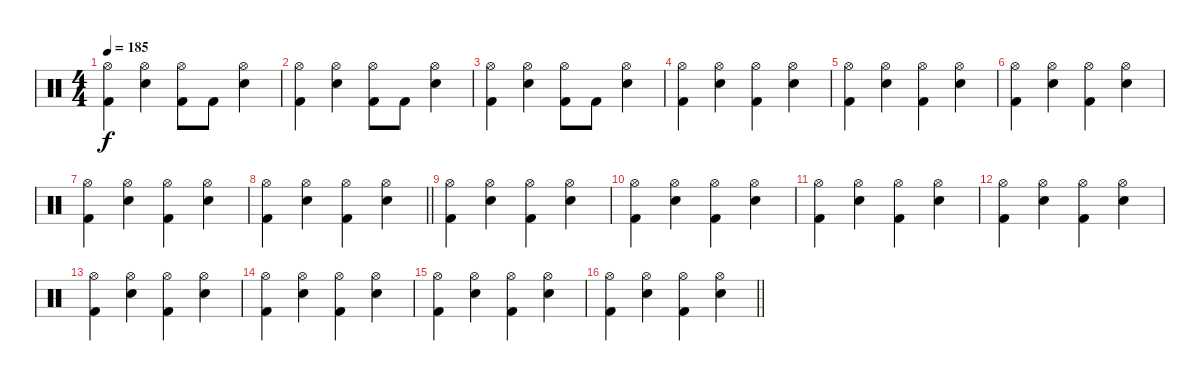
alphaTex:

\track "" {instrument percussion}
\staff {score}
\articulation defaults
\ts (4 4)
\tempo 185
\clef neutral
\ks c
("Kick (hit) 2" "Hi-Hat (open)").4{dy f} ("Snare (hit) 2" "Hi-Hat (open)").4 ("Kick (hit) 2" "Hi-Hat (open)").8 "Kick (hit) 2".8 ("Snare (hit) 2" "Hi-Hat (open)").4 |
("Kick (hit) 2" "Hi-Hat (open)").4 ("Snare (hit) 2" "Hi-Hat (open)").4 ("Kick (hit) 2" "Hi-Hat (open)").8 "Kick (hit) 2".8 ("Snare (hit) 2" "Hi-Hat (open)").4 |
("Kick (hit) 2" "Hi-Hat (open)").4 ("Snare (hit) 2" "Hi-Hat (open)").4 ("Kick (hit) 2" "Hi-Hat (open)").8 "Kick (hit) 2".8 ("Snare (hit) 2" "Hi-Hat (open)").4 |
("Kick (hit) 2" "Hi-Hat (open)").4 ("Snare (hit) 2" "Hi-Hat (open)").4 ("Kick (hit) 2" "Hi-Hat (open)").4 ("Snare (hit) 2" "Hi-Hat (open)").4 |
("Kick (hit) 2" "Hi-Hat (open)").4 ("Snare (hit) 2" "Hi-Hat (open)").4 ("Kick (hit) 2" "Hi-Hat (open)").4 ("Snare (hit) 2" "Hi-Hat (open)").4 |
("Kick (hit) 2" "Hi-Hat (open)").4 ("Snare (hit) 2" "Hi-Hat (open)").4 ("Kick (hit) 2" "Hi-Hat (open)").4 ("Snare (hit) 2" "Hi-Hat (open)").4 |
("Kick (hit) 2" "Hi-Hat (open)").4 ("Snare (hit) 2" "Hi-Hat (open)").4 ("Kick (hit) 2" "Hi-Hat (open)").4 ("Snare (hit) 2" "Hi-Hat (open)").4 |
\barLineRight lightlight
("Kick (hit) 2" "Hi-Hat (open)").4 ("Snare (hit) 2" "Hi-Hat (open)").4 ("Kick (hit) 2" "Hi-Hat (open)").4 ("Snare (hit) 2" "Hi-Hat (open)").4 |
("Kick (hit) 2" "Hi-Hat (open)").4 ("Snare (hit) 2" "Hi-Hat (open)").4 ("Kick (hit) 2" "Hi-Hat (open)").4 ("Snare (hit) 2" "Hi-Hat (open)").4 |
("Kick (hit) 2" "Hi-Hat (open)").4 ("Snare (hit) 2" "Hi-Hat (open)").4 ("Kick (hit) 2" "Hi-Hat (open)").4 ("Snare (hit) 2" "Hi-Hat (open)").4 |
("Kick (hit) 2" "Hi-Hat (open)").4 ("Snare (hit) 2" "Hi-Hat (open)").4 ("Kick (hit) 2" "Hi-Hat (open)").4 ("Snare (hit) 2" "Hi-Hat (open)").4 |
("Kick (hit) 2" "Hi-Hat (open)").4 ("Snare (hit) 2" "Hi-Hat (open)").4 ("Kick (hit) 2" "Hi-Hat (open)").4 ("Snare (hit) 2" "Hi-Hat (open)").4 |
("Kick (hit) 2" "Hi-Hat (open)").4 ("Snare (hit) 2" "Hi-Hat (open)").4 ("Kick (hit) 2" "Hi-Hat (open)").4 ("Snare (hit) 2" "Hi-Hat (open)").4 |
("Kick (hit) 2" "Hi-Hat (open)").4 ("Snare (hit) 2" "Hi-Hat (open)").4 ("Kick (hit) 2" "Hi-Hat (open)").4 ("Snare (hit) 2" "Hi-Hat (open)").4 |
("Kick (hit) 2" "Hi-Hat (open)").4 ("Snare (hit) 2" "Hi-Hat (open)").4 ("Kick (hit) 2" "Hi-Hat (open)").4 ("Snare (hit) 2" "Hi-Hat (open)").4 |
\barLineRight lightlight
("Kick (hit) 2" "Hi-Hat (open)").4 ("Snare (hit) 2" "Hi-Hat (open)").4 ("Kick (hit) 2" "Hi-Hat (open)").4 ("Snare (hit) 2" "Hi-Hat (open)").4
